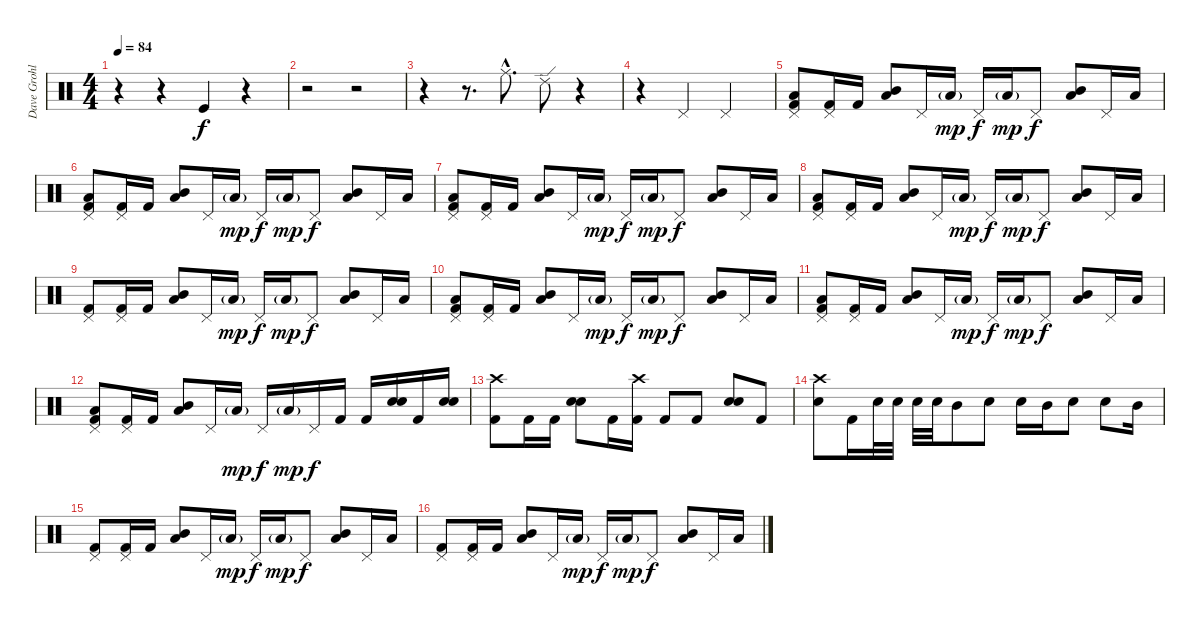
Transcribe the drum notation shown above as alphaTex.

\track ("Dave Grohl (Drums)" "Dave Grohl") {instrument percussion}
\staff {score}
\articulation defaults
\ts (4 4)
\tempo 84
\clef neutral
\ks c
r.4{dy f} r.4 "Kick (hit)".4 r.4 |
r.2 r.2 |
r.4 r.8{d} "Ride (middle)"{hac}.8{d} "Ride (edge) 2".8 r.4 |
r.4 "Pedal Hi-Hat (hit)".4 "Pedal Hi-Hat (hit)".2 |
("Low Floor Tom (hit)" "Pedal Hi-Hat (hit)"{x} "Kick (hit) 2").8 ("Pedal Hi-Hat (hit)"{x} "Kick (hit) 2").16 "Kick (hit) 2".16 ("Mid Tom (hit)" "Low Floor Tom (hit)").8 "Pedal Hi-Hat (hit)"{x}.16 "Low Floor Tom (hit)"{g}.16{dy mp} "Pedal Hi-Hat (hit)"{x}.16{dy f} "Low Floor Tom (hit)"{g}.16{dy mp} "Pedal Hi-Hat (hit)"{x}.8{dy f} ("Mid Tom (hit)" "Low Floor Tom (hit)").8 "Pedal Hi-Hat (hit)"{x}.16 "Low Floor Tom (hit)".16 |
("Low Floor Tom (hit)" "Pedal Hi-Hat (hit)"{x} "Kick (hit) 2").8 ("Pedal Hi-Hat (hit)"{x} "Kick (hit) 2").16 "Kick (hit) 2".16 ("Mid Tom (hit)" "Low Floor Tom (hit)").8 "Pedal Hi-Hat (hit)"{x}.16 "Low Floor Tom (hit)"{g}.16{dy mp} "Pedal Hi-Hat (hit)"{x}.16{dy f} "Low Floor Tom (hit)"{g}.16{dy mp} "Pedal Hi-Hat (hit)"{x}.8{dy f} ("Mid Tom (hit)" "Low Floor Tom (hit)").8 "Pedal Hi-Hat (hit)"{x}.16 "Low Floor Tom (hit)".16 |
("Low Floor Tom (hit)" "Pedal Hi-Hat (hit)"{x} "Kick (hit) 2").8 ("Pedal Hi-Hat (hit)"{x} "Kick (hit) 2").16 "Kick (hit) 2".16 ("Mid Tom (hit)" "Low Floor Tom (hit)").8 "Pedal Hi-Hat (hit)"{x}.16 "Low Floor Tom (hit)"{g}.16{dy mp} "Pedal Hi-Hat (hit)"{x}.16{dy f} "Low Floor Tom (hit)"{g}.16{dy mp} "Pedal Hi-Hat (hit)"{x}.8{dy f} ("Mid Tom (hit)" "Low Floor Tom (hit)").8 "Pedal Hi-Hat (hit)"{x}.16 "Low Floor Tom (hit)".16 |
("Low Floor Tom (hit)" "Pedal Hi-Hat (hit)"{x} "Kick (hit) 2").8 ("Pedal Hi-Hat (hit)"{x} "Kick (hit) 2").16 "Kick (hit) 2".16 ("Mid Tom (hit)" "Low Floor Tom (hit)").8 "Pedal Hi-Hat (hit)"{x}.16 "Low Floor Tom (hit)"{g}.16{dy mp} "Pedal Hi-Hat (hit)"{x}.16{dy f} "Low Floor Tom (hit)"{g}.16{dy mp} "Pedal Hi-Hat (hit)"{x}.8{dy f} ("Mid Tom (hit)" "Low Floor Tom (hit)").8 "Pedal Hi-Hat (hit)"{x}.16 "Low Floor Tom (hit)".16 |
("Pedal Hi-Hat (hit)"{x} "Kick (hit) 2").8 ("Pedal Hi-Hat (hit)"{x} "Kick (hit) 2").16 "Kick (hit) 2".16 ("Mid Tom (hit)" "Low Floor Tom (hit)").8 "Pedal Hi-Hat (hit)"{x}.16 "Low Floor Tom (hit)"{g}.16{dy mp} "Pedal Hi-Hat (hit)"{x}.16{dy f} "Low Floor Tom (hit)"{g}.16{dy mp} "Pedal Hi-Hat (hit)"{x}.8{dy f} ("Mid Tom (hit)" "Low Floor Tom (hit)").8 "Pedal Hi-Hat (hit)"{x}.16 "Low Floor Tom (hit)".16 |
("Low Floor Tom (hit)" "Pedal Hi-Hat (hit)"{x} "Kick (hit) 2").8 ("Pedal Hi-Hat (hit)"{x} "Kick (hit) 2").16 "Kick (hit) 2".16 ("Mid Tom (hit)" "Low Floor Tom (hit)").8 "Pedal Hi-Hat (hit)"{x}.16 "Low Floor Tom (hit)"{g}.16{dy mp} "Pedal Hi-Hat (hit)"{x}.16{dy f} "Low Floor Tom (hit)"{g}.16{dy mp} "Pedal Hi-Hat (hit)"{x}.8{dy f} ("Mid Tom (hit)" "Low Floor Tom (hit)").8 "Pedal Hi-Hat (hit)"{x}.16 "Low Floor Tom (hit)".16 |
("Low Floor Tom (hit)" "Pedal Hi-Hat (hit)"{x} "Kick (hit) 2").8 ("Pedal Hi-Hat (hit)"{x} "Kick (hit) 2").16 "Kick (hit) 2".16 ("Mid Tom (hit)" "Low Floor Tom (hit)").8 "Pedal Hi-Hat (hit)"{x}.16 "Low Floor Tom (hit)"{g}.16{dy mp} "Pedal Hi-Hat (hit)"{x}.16{dy f} "Low Floor Tom (hit)"{g}.16{dy mp} "Pedal Hi-Hat (hit)"{x}.8{dy f} ("Mid Tom (hit)" "Low Floor Tom (hit)").8 "Pedal Hi-Hat (hit)"{x}.16 "Low Floor Tom (hit)".16 |
("Low Floor Tom (hit)" "Pedal Hi-Hat (hit)"{x} "Kick (hit) 2").8 ("Pedal Hi-Hat (hit)"{x} "Kick (hit) 2").16 "Kick (hit) 2".16 ("Mid Tom (hit)" "Low Floor Tom (hit)").8 "Pedal Hi-Hat (hit)"{x}.16 "Low Floor Tom (hit)"{g}.16{dy mp} "Pedal Hi-Hat (hit)"{x}.16{dy f} "Low Floor Tom (hit)"{g}.16{dy mp} "Pedal Hi-Hat (hit)"{x}.16{dy f} "Kick (hit) 2".16 "Kick (hit) 2".16 ("Snare (hit) 2" "Snare (hit) 2").16 "Kick (hit) 2".16 ("Snare (hit) 2" "Snare (hit) 2").16 |
("Crash high (hit)"{x} "Kick (hit) 2").8 "Kick (hit) 2".16 "Kick (hit) 2".16 ("Electric Snare (hit)" "Electric Snare (hit)").8 "Kick (hit) 2".16 ("Crash high (hit)"{x} "Kick (hit) 2").16 "Kick (hit) 2".8 "Kick (hit) 2".8 ("Electric Snare (hit)" "Electric Snare (hit)").8 "Kick (hit) 2".8 |
("Crash high (hit)"{x} "Snare (hit) 2").8 "Kick (hit) 2".16 "Snare (hit) 2".32 "Snare (hit) 2".32 "Snare (hit) 2".32 "Snare (hit) 2".32 "Mid Tom (hit)".8 "Snare (hit) 2".8 "Snare (hit) 2".16 "Mid Tom (hit)".16 "Snare (hit) 2".8 "Snare (hit) 2".8 "Mid Tom (hit)".16 |
("Pedal Hi-Hat (hit)"{x} "Kick (hit) 2").8 ("Pedal Hi-Hat (hit)"{x} "Kick (hit) 2").16 "Kick (hit) 2".16 ("Mid Tom (hit)" "Low Floor Tom (hit)").8 "Pedal Hi-Hat (hit)"{x}.16 "Low Floor Tom (hit)"{g}.16{dy mp} "Pedal Hi-Hat (hit)"{x}.16{dy f} "Low Floor Tom (hit)"{g}.16{dy mp} "Pedal Hi-Hat (hit)"{x}.8{dy f} ("Mid Tom (hit)" "Low Floor Tom (hit)").8 "Pedal Hi-Hat (hit)"{x}.16 "Low Floor Tom (hit)".16 |
("Pedal Hi-Hat (hit)"{x} "Kick (hit) 2").8 ("Pedal Hi-Hat (hit)"{x} "Kick (hit) 2").16 "Kick (hit) 2".16 ("Mid Tom (hit)" "Low Floor Tom (hit)").8 "Pedal Hi-Hat (hit)"{x}.16 "Low Floor Tom (hit)"{g}.16{dy mp} "Pedal Hi-Hat (hit)"{x}.16{dy f} "Low Floor Tom (hit)"{g}.16{dy mp} "Pedal Hi-Hat (hit)"{x}.8{dy f} ("Mid Tom (hit)" "Low Floor Tom (hit)").8 "Pedal Hi-Hat (hit)"{x}.16 "Low Floor Tom (hit)".16
